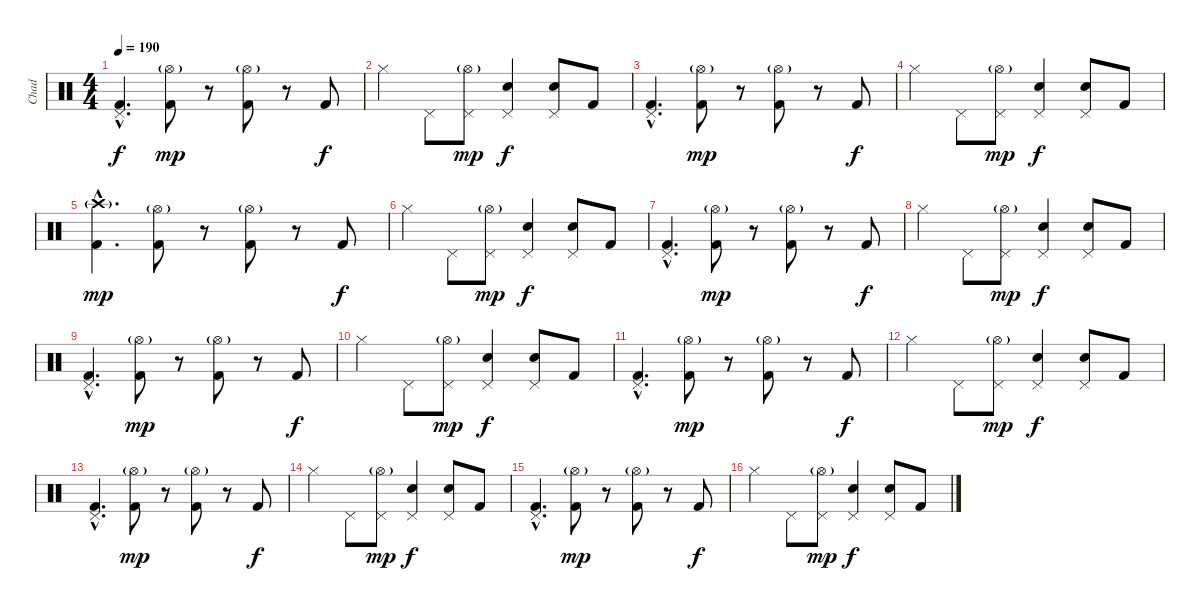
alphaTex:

\track ("Chad" "Chad") {instrument percussion}
\staff {score}
\articulation defaults
\ts (4 4)
\tempo 190
\clef neutral
\ks c
("Kick (hit) 2"{hac} "Pedal Hi-Hat (hit)"{hac}).4{d dy f} ("Kick (hit) 2" "Hi-Hat (open)"{g}).8{dy mp} r.8 ("Kick (hit) 2" "Hi-Hat (open)"{g}).8 r.8 "Kick (hit) 2".8{dy f} |
"Hi-Hat (closed)".4 "Pedal Hi-Hat (hit)".8 ("Pedal Hi-Hat (hit)" "Hi-Hat (open)"{g}).8{dy mp} ("Electric Snare (hit)" "Pedal Hi-Hat (hit)").4{dy f} ("Electric Snare (hit)" "Pedal Hi-Hat (hit)").8 "Kick (hit) 2".8 |
("Kick (hit) 2"{hac} "Pedal Hi-Hat (hit)"{hac}).4{d} ("Kick (hit) 2" "Hi-Hat (open)"{g}).8{dy mp} r.8 ("Kick (hit) 2" "Hi-Hat (open)"{g}).8 r.8 "Kick (hit) 2".8{dy f} |
"Hi-Hat (closed)".4 "Pedal Hi-Hat (hit)".8 ("Pedal Hi-Hat (hit)" "Hi-Hat (open)"{g}).8{dy mp} ("Electric Snare (hit)" "Pedal Hi-Hat (hit)").4{dy f} ("Electric Snare (hit)" "Pedal Hi-Hat (hit)").8 "Kick (hit) 2".8 |
("Kick (hit) 2"{hac} "Crash high (hit)"{g hac}).4{d dy mp} ("Kick (hit) 2" "Hi-Hat (open)"{g}).8 r.8 ("Kick (hit) 2" "Hi-Hat (open)"{g}).8 r.8 "Kick (hit) 2".8{dy f} |
"Hi-Hat (closed)".4 "Pedal Hi-Hat (hit)".8 ("Pedal Hi-Hat (hit)" "Hi-Hat (open)"{g}).8{dy mp} ("Electric Snare (hit)" "Pedal Hi-Hat (hit)").4{dy f} ("Electric Snare (hit)" "Pedal Hi-Hat (hit)").8 "Kick (hit) 2".8 |
("Kick (hit) 2"{hac} "Pedal Hi-Hat (hit)"{hac}).4{d} ("Kick (hit) 2" "Hi-Hat (open)"{g}).8{dy mp} r.8 ("Kick (hit) 2" "Hi-Hat (open)"{g}).8 r.8 "Kick (hit) 2".8{dy f} |
"Hi-Hat (closed)".4 "Pedal Hi-Hat (hit)".8 ("Pedal Hi-Hat (hit)" "Hi-Hat (open)"{g}).8{dy mp} ("Electric Snare (hit)" "Pedal Hi-Hat (hit)").4{dy f} ("Electric Snare (hit)" "Pedal Hi-Hat (hit)").8 "Kick (hit) 2".8 |
("Kick (hit) 2"{hac} "Pedal Hi-Hat (hit)"{hac}).4{d} ("Kick (hit) 2" "Hi-Hat (open)"{g}).8{dy mp} r.8 ("Kick (hit) 2" "Hi-Hat (open)"{g}).8 r.8 "Kick (hit) 2".8{dy f} |
"Hi-Hat (closed)".4 "Pedal Hi-Hat (hit)".8 ("Pedal Hi-Hat (hit)" "Hi-Hat (open)"{g}).8{dy mp} ("Electric Snare (hit)" "Pedal Hi-Hat (hit)").4{dy f} ("Electric Snare (hit)" "Pedal Hi-Hat (hit)").8 "Kick (hit) 2".8 |
("Kick (hit) 2"{hac} "Pedal Hi-Hat (hit)"{hac}).4{d} ("Kick (hit) 2" "Hi-Hat (open)"{g}).8{dy mp} r.8 ("Kick (hit) 2" "Hi-Hat (open)"{g}).8 r.8 "Kick (hit) 2".8{dy f} |
"Hi-Hat (closed)".4 "Pedal Hi-Hat (hit)".8 ("Pedal Hi-Hat (hit)" "Hi-Hat (open)"{g}).8{dy mp} ("Electric Snare (hit)" "Pedal Hi-Hat (hit)").4{dy f} ("Electric Snare (hit)" "Pedal Hi-Hat (hit)").8 "Kick (hit) 2".8 |
("Kick (hit) 2"{hac} "Pedal Hi-Hat (hit)"{hac}).4{d} ("Kick (hit) 2" "Hi-Hat (open)"{g}).8{dy mp} r.8 ("Kick (hit) 2" "Hi-Hat (open)"{g}).8 r.8 "Kick (hit) 2".8{dy f} |
"Hi-Hat (closed)".4 "Pedal Hi-Hat (hit)".8 ("Pedal Hi-Hat (hit)" "Hi-Hat (open)"{g}).8{dy mp} ("Electric Snare (hit)" "Pedal Hi-Hat (hit)").4{dy f} ("Electric Snare (hit)" "Pedal Hi-Hat (hit)").8 "Kick (hit) 2".8 |
("Kick (hit) 2"{hac} "Pedal Hi-Hat (hit)"{hac}).4{d} ("Kick (hit) 2" "Hi-Hat (open)"{g}).8{dy mp} r.8 ("Kick (hit) 2" "Hi-Hat (open)"{g}).8 r.8 "Kick (hit) 2".8{dy f} |
"Hi-Hat (closed)".4 "Pedal Hi-Hat (hit)".8 ("Pedal Hi-Hat (hit)" "Hi-Hat (open)"{g}).8{dy mp} ("Electric Snare (hit)" "Pedal Hi-Hat (hit)").4{dy f} ("Electric Snare (hit)" "Pedal Hi-Hat (hit)").8 "Kick (hit) 2".8
